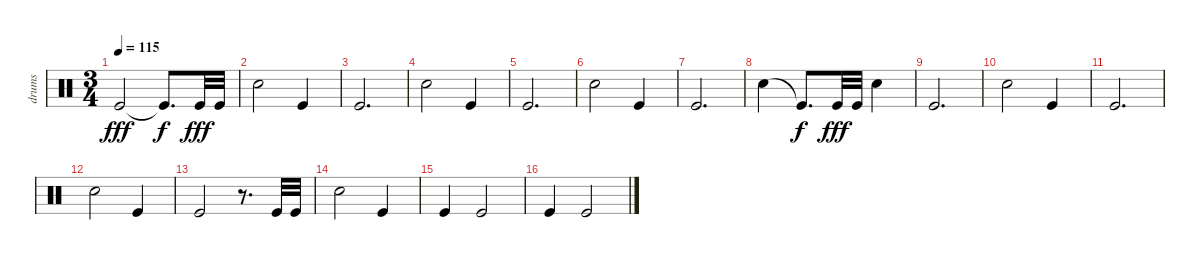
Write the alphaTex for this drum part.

\track ("drums" "drums") {instrument percussion}
\staff {score}
\articulation defaults
\ts (3 4)
\tempo 115
\clef neutral
\ks c "Kick (hit)".2{dy fff} "Kick (hit)"{t}.8{d dy f} "Kick (hit)".32{dy fff} "Kick (hit)".32
|
"Electric Snare (hit)".2 "Kick (hit)".4 |
"Kick (hit)".2{d} |
"Electric Snare (hit)".2 "Kick (hit)".4 |
"Kick (hit)".2{d} |
"Electric Snare (hit)".2 "Kick (hit)".4 |
"Kick (hit)".2{d} |
"Electric Snare (hit)".4 "Kick (hit)"{t}.8{d dy f} "Kick (hit)".32{dy fff} "Kick (hit)".32 "Electric Snare (hit)".4 |
"Kick (hit)".2{d} |
"Electric Snare (hit)".2 "Kick (hit)".4 |
"Kick (hit)".2{d} |
"Electric Snare (hit)".2 "Kick (hit)".4 |
"Kick (hit)".2 r.8{d} "Kick (hit)".32 "Kick (hit)".32 |
"Electric Snare (hit)".2 "Kick (hit)".4 |
"Kick (hit)".4 "Kick (hit)".2 |
"Kick (hit)".4 "Kick (hit)".2
